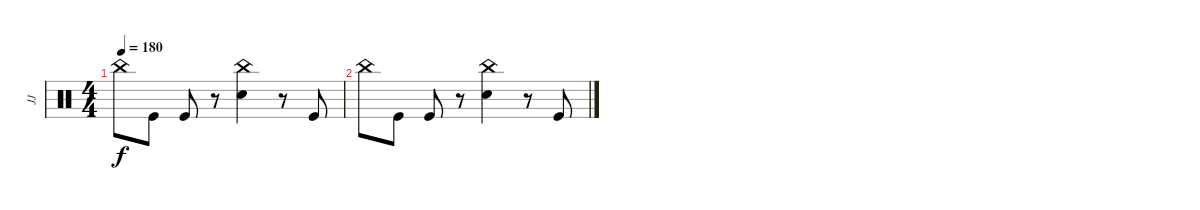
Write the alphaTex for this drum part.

\track ("JJ" "JJ") {mute instrument percussion}
\staff {score}
\articulation defaults
\ts (4 4)
\tempo 180
\clef neutral
\ks c "China (hit)".8{dy f} "Kick (hit)".8 "Kick (hit)".8
r.8 ("China (hit)" "Snare (hit) 2").4 r.8 "Kick (hit)".8 |
"China (hit)".8 "Kick (hit)".8 "Kick (hit)".8 r.8 ("China (hit)" "Snare (hit) 2").4 r.8 "Kick (hit)".8
